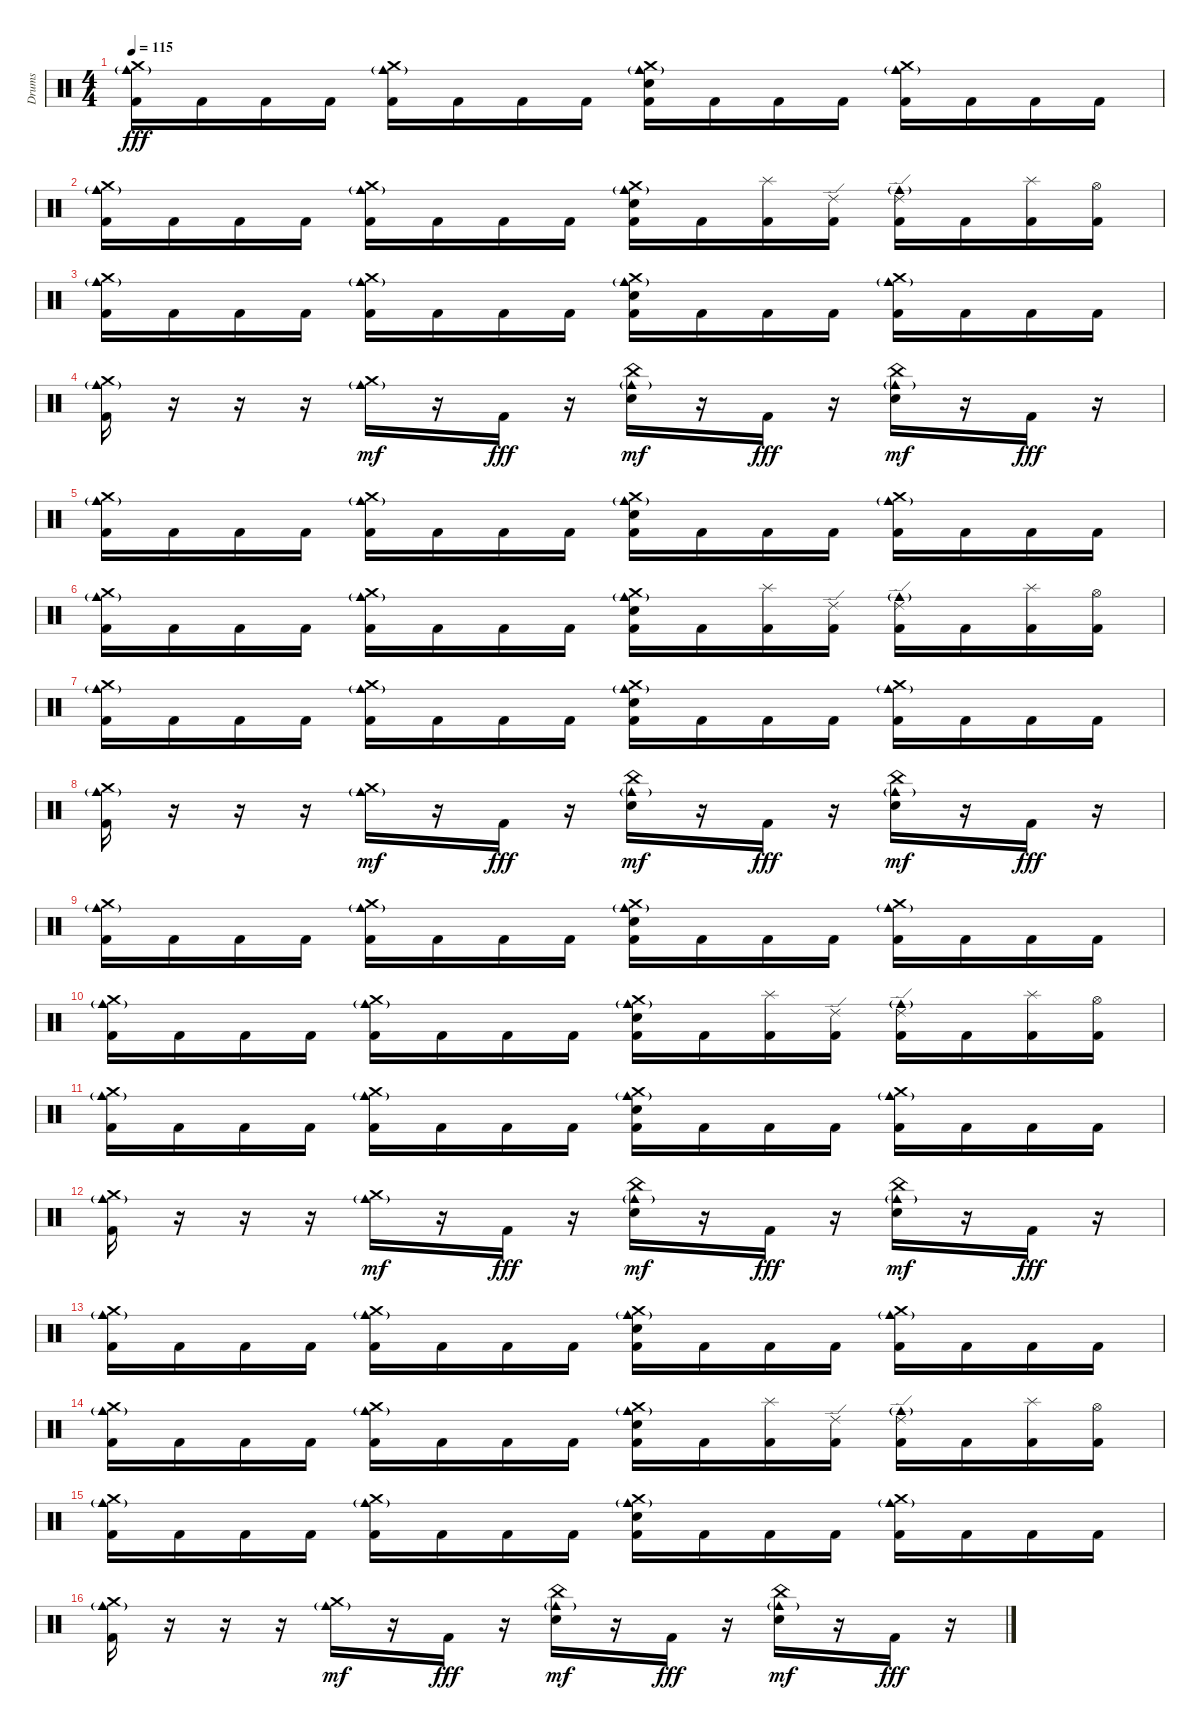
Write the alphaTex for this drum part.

\track ("Drums" "Drums") {instrument percussion}
\staff {score}
\articulation defaults
\ts (4 4)
\tempo 115
\clef neutral
\ks c
("Crash medium (hit)" "Cowbell medium (hit)"{g} "Kick (hit) 2").16{dy fff} "Kick (hit) 2".16 "Kick (hit) 2".16 "Kick (hit) 2".16 ("Crash medium (hit)" "Cowbell medium (hit)"{g} "Kick (hit) 2").16 "Kick (hit) 2".16 "Kick (hit) 2".16 "Kick (hit) 2".16 ("Crash medium (hit)" "Cowbell medium (hit)"{g} "Electric Snare (hit)" "Kick (hit) 2").16 "Kick (hit) 2".16 "Kick (hit) 2".16 "Kick (hit) 2".16 ("Crash medium (hit)" "Cowbell medium (hit)"{g} "Kick (hit) 2").16 "Kick (hit) 2".16 "Kick (hit) 2".16 "Kick (hit) 2".16 |
("Crash medium (hit)" "Cowbell medium (hit)"{g} "Kick (hit) 2").16 "Kick (hit) 2".16 "Kick (hit) 2".16 "Kick (hit) 2".16 ("Crash medium (hit)" "Cowbell medium (hit)"{g} "Kick (hit) 2").16 "Kick (hit) 2".16 "Kick (hit) 2".16 "Kick (hit) 2".16 ("Crash medium (hit)" "Cowbell medium (hit)"{g} "Electric Snare (hit)" "Kick (hit) 2").16 "Kick (hit) 2".16 ("Splash (hit)" "Kick (hit) 2").16 ("Ride (edge) 2" "Kick (hit) 2").16 ("Ride (edge) 2" "Cowbell medium (hit)"{g} "Kick (hit) 2").16 "Kick (hit) 2".16 ("Splash (hit)" "Kick (hit) 2").16 ("Hi-Hat (open)" "Kick (hit) 2").16 |
("Crash medium (hit)" "Cowbell medium (hit)"{g} "Kick (hit) 2").16 "Kick (hit) 2".16 "Kick (hit) 2".16 "Kick (hit) 2".16 ("Crash medium (hit)" "Cowbell medium (hit)"{g} "Kick (hit) 2").16 "Kick (hit) 2".16 "Kick (hit) 2".16 "Kick (hit) 2".16 ("Crash medium (hit)" "Cowbell medium (hit)"{g} "Electric Snare (hit)" "Kick (hit) 2").16 "Kick (hit) 2".16 "Kick (hit) 2".16 "Kick (hit) 2".16 ("Crash medium (hit)" "Cowbell medium (hit)"{g} "Kick (hit) 2").16 "Kick (hit) 2".16 "Kick (hit) 2".16 "Kick (hit) 2".16 |
("Crash medium (hit)" "Cowbell medium (hit)"{g} "Kick (hit) 2").16 r.16 r.16 r.16 ("Crash medium (hit)" "Cowbell medium (hit)"{g}).16{dy mf} r.16 "Kick (hit) 2".16{dy fff} r.16 ("China (hit)" "Cowbell medium (hit)"{g} "Electric Snare (hit)").16{dy mf} r.16 "Kick (hit) 2".16{dy fff} r.16 ("China (hit)" "Cowbell medium (hit)"{g} "Electric Snare (hit)").16{dy mf} r.16 "Kick (hit) 2".16{dy fff} r.16 |
("Crash medium (hit)" "Cowbell medium (hit)"{g} "Kick (hit) 2").16 "Kick (hit) 2".16 "Kick (hit) 2".16 "Kick (hit) 2".16 ("Crash medium (hit)" "Cowbell medium (hit)"{g} "Kick (hit) 2").16 "Kick (hit) 2".16 "Kick (hit) 2".16 "Kick (hit) 2".16 ("Crash medium (hit)" "Cowbell medium (hit)"{g} "Electric Snare (hit)" "Kick (hit) 2").16 "Kick (hit) 2".16 "Kick (hit) 2".16 "Kick (hit) 2".16 ("Crash medium (hit)" "Cowbell medium (hit)"{g} "Kick (hit) 2").16 "Kick (hit) 2".16 "Kick (hit) 2".16 "Kick (hit) 2".16 |
("Crash medium (hit)" "Cowbell medium (hit)"{g} "Kick (hit) 2").16 "Kick (hit) 2".16 "Kick (hit) 2".16 "Kick (hit) 2".16 ("Crash medium (hit)" "Cowbell medium (hit)"{g} "Kick (hit) 2").16 "Kick (hit) 2".16 "Kick (hit) 2".16 "Kick (hit) 2".16 ("Crash medium (hit)" "Cowbell medium (hit)"{g} "Electric Snare (hit)" "Kick (hit) 2").16 "Kick (hit) 2".16 ("Splash (hit)" "Kick (hit) 2").16 ("Ride (edge) 2" "Kick (hit) 2").16 ("Ride (edge) 2" "Cowbell medium (hit)"{g} "Kick (hit) 2").16 "Kick (hit) 2".16 ("Splash (hit)" "Kick (hit) 2").16 ("Hi-Hat (open)" "Kick (hit) 2").16 |
("Crash medium (hit)" "Cowbell medium (hit)"{g} "Kick (hit) 2").16 "Kick (hit) 2".16 "Kick (hit) 2".16 "Kick (hit) 2".16 ("Crash medium (hit)" "Cowbell medium (hit)"{g} "Kick (hit) 2").16 "Kick (hit) 2".16 "Kick (hit) 2".16 "Kick (hit) 2".16 ("Crash medium (hit)" "Cowbell medium (hit)"{g} "Electric Snare (hit)" "Kick (hit) 2").16 "Kick (hit) 2".16 "Kick (hit) 2".16 "Kick (hit) 2".16 ("Crash medium (hit)" "Cowbell medium (hit)"{g} "Kick (hit) 2").16 "Kick (hit) 2".16 "Kick (hit) 2".16 "Kick (hit) 2".16 |
("Crash medium (hit)" "Cowbell medium (hit)"{g} "Kick (hit) 2").16 r.16 r.16 r.16 ("Crash medium (hit)" "Cowbell medium (hit)"{g}).16{dy mf} r.16 "Kick (hit) 2".16{dy fff} r.16 ("China (hit)" "Cowbell medium (hit)"{g} "Electric Snare (hit)").16{dy mf} r.16 "Kick (hit) 2".16{dy fff} r.16 ("China (hit)" "Cowbell medium (hit)"{g} "Electric Snare (hit)").16{dy mf} r.16 "Kick (hit) 2".16{dy fff} r.16 |
("Crash medium (hit)" "Cowbell medium (hit)"{g} "Kick (hit) 2").16 "Kick (hit) 2".16 "Kick (hit) 2".16 "Kick (hit) 2".16 ("Crash medium (hit)" "Cowbell medium (hit)"{g} "Kick (hit) 2").16 "Kick (hit) 2".16 "Kick (hit) 2".16 "Kick (hit) 2".16 ("Crash medium (hit)" "Cowbell medium (hit)"{g} "Electric Snare (hit)" "Kick (hit) 2").16 "Kick (hit) 2".16 "Kick (hit) 2".16 "Kick (hit) 2".16 ("Crash medium (hit)" "Cowbell medium (hit)"{g} "Kick (hit) 2").16 "Kick (hit) 2".16 "Kick (hit) 2".16 "Kick (hit) 2".16 |
("Crash medium (hit)" "Cowbell medium (hit)"{g} "Kick (hit) 2").16 "Kick (hit) 2".16 "Kick (hit) 2".16 "Kick (hit) 2".16 ("Crash medium (hit)" "Cowbell medium (hit)"{g} "Kick (hit) 2").16 "Kick (hit) 2".16 "Kick (hit) 2".16 "Kick (hit) 2".16 ("Crash medium (hit)" "Cowbell medium (hit)"{g} "Electric Snare (hit)" "Kick (hit) 2").16 "Kick (hit) 2".16 ("Splash (hit)" "Kick (hit) 2").16 ("Ride (edge) 2" "Kick (hit) 2").16 ("Ride (edge) 2" "Cowbell medium (hit)"{g} "Kick (hit) 2").16 "Kick (hit) 2".16 ("Splash (hit)" "Kick (hit) 2").16 ("Hi-Hat (open)" "Kick (hit) 2").16 |
("Crash medium (hit)" "Cowbell medium (hit)"{g} "Kick (hit) 2").16 "Kick (hit) 2".16 "Kick (hit) 2".16 "Kick (hit) 2".16 ("Crash medium (hit)" "Cowbell medium (hit)"{g} "Kick (hit) 2").16 "Kick (hit) 2".16 "Kick (hit) 2".16 "Kick (hit) 2".16 ("Crash medium (hit)" "Cowbell medium (hit)"{g} "Electric Snare (hit)" "Kick (hit) 2").16 "Kick (hit) 2".16 "Kick (hit) 2".16 "Kick (hit) 2".16 ("Crash medium (hit)" "Cowbell medium (hit)"{g} "Kick (hit) 2").16 "Kick (hit) 2".16 "Kick (hit) 2".16 "Kick (hit) 2".16 |
("Crash medium (hit)" "Cowbell medium (hit)"{g} "Kick (hit) 2").16 r.16 r.16 r.16 ("Crash medium (hit)" "Cowbell medium (hit)"{g}).16{dy mf} r.16 "Kick (hit) 2".16{dy fff} r.16 ("China (hit)" "Cowbell medium (hit)"{g} "Electric Snare (hit)").16{dy mf} r.16 "Kick (hit) 2".16{dy fff} r.16 ("China (hit)" "Cowbell medium (hit)"{g} "Electric Snare (hit)").16{dy mf} r.16 "Kick (hit) 2".16{dy fff} r.16 |
("Crash medium (hit)" "Cowbell medium (hit)"{g} "Kick (hit) 2").16 "Kick (hit) 2".16 "Kick (hit) 2".16 "Kick (hit) 2".16 ("Crash medium (hit)" "Cowbell medium (hit)"{g} "Kick (hit) 2").16 "Kick (hit) 2".16 "Kick (hit) 2".16 "Kick (hit) 2".16 ("Crash medium (hit)" "Cowbell medium (hit)"{g} "Electric Snare (hit)" "Kick (hit) 2").16 "Kick (hit) 2".16 "Kick (hit) 2".16 "Kick (hit) 2".16 ("Crash medium (hit)" "Cowbell medium (hit)"{g} "Kick (hit) 2").16 "Kick (hit) 2".16 "Kick (hit) 2".16 "Kick (hit) 2".16 |
("Crash medium (hit)" "Cowbell medium (hit)"{g} "Kick (hit) 2").16 "Kick (hit) 2".16 "Kick (hit) 2".16 "Kick (hit) 2".16 ("Crash medium (hit)" "Cowbell medium (hit)"{g} "Kick (hit) 2").16 "Kick (hit) 2".16 "Kick (hit) 2".16 "Kick (hit) 2".16 ("Crash medium (hit)" "Cowbell medium (hit)"{g} "Electric Snare (hit)" "Kick (hit) 2").16 "Kick (hit) 2".16 ("Splash (hit)" "Kick (hit) 2").16 ("Ride (edge) 2" "Kick (hit) 2").16 ("Ride (edge) 2" "Cowbell medium (hit)"{g} "Kick (hit) 2").16 "Kick (hit) 2".16 ("Splash (hit)" "Kick (hit) 2").16 ("Hi-Hat (open)" "Kick (hit) 2").16 |
("Crash medium (hit)" "Cowbell medium (hit)"{g} "Kick (hit) 2").16 "Kick (hit) 2".16 "Kick (hit) 2".16 "Kick (hit) 2".16 ("Crash medium (hit)" "Cowbell medium (hit)"{g} "Kick (hit) 2").16 "Kick (hit) 2".16 "Kick (hit) 2".16 "Kick (hit) 2".16 ("Crash medium (hit)" "Cowbell medium (hit)"{g} "Electric Snare (hit)" "Kick (hit) 2").16 "Kick (hit) 2".16 "Kick (hit) 2".16 "Kick (hit) 2".16 ("Crash medium (hit)" "Cowbell medium (hit)"{g} "Kick (hit) 2").16 "Kick (hit) 2".16 "Kick (hit) 2".16 "Kick (hit) 2".16 |
("Crash medium (hit)" "Cowbell medium (hit)"{g} "Kick (hit) 2").16 r.16 r.16 r.16 ("Crash medium (hit)" "Cowbell medium (hit)"{g}).16{dy mf} r.16 "Kick (hit) 2".16{dy fff} r.16 ("China (hit)" "Cowbell medium (hit)"{g} "Electric Snare (hit)").16{dy mf} r.16 "Kick (hit) 2".16{dy fff} r.16 ("China (hit)" "Cowbell medium (hit)"{g} "Electric Snare (hit)").16{dy mf} r.16 "Kick (hit) 2".16{dy fff} r.16
